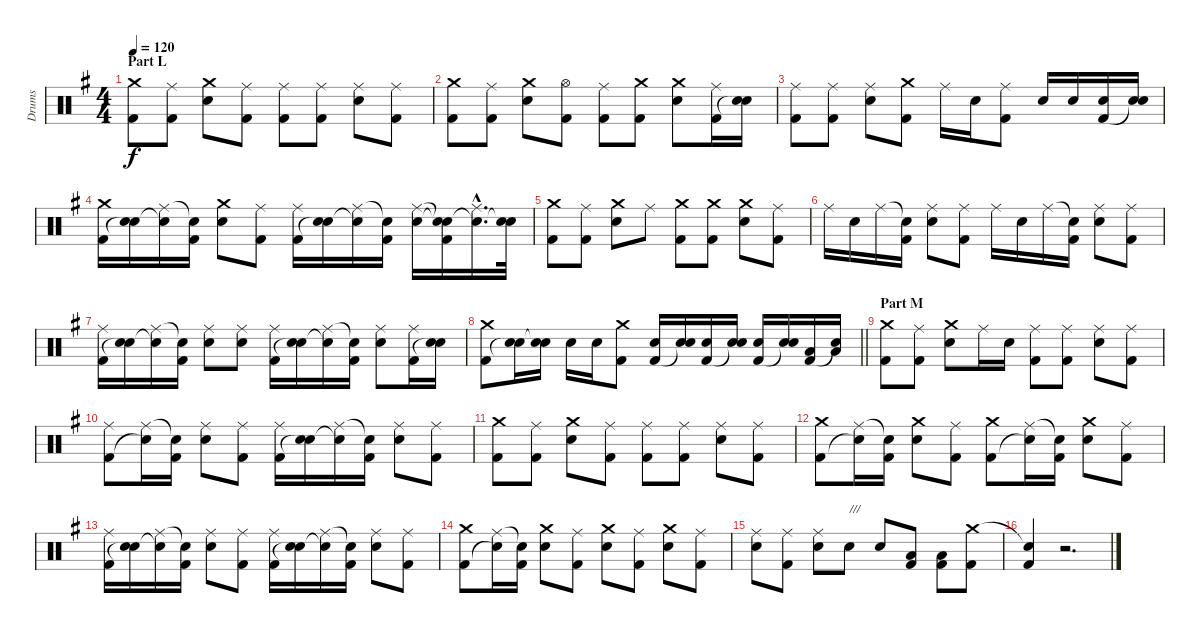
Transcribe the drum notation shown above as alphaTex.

\track ("Drums" "Drums") {instrument percussion}
\staff {score}
\articulation defaults
\ts (4 4)
\section ("" "Part L")
\tempo 120
\clef neutral
\ks g
("Crash medium (hit)" "Kick (hit) 2").8{dy f} ("Ride (middle)" "Kick (hit) 2").8 ("Crash medium (hit)" "Electric Snare (hit)").8 ("Ride (middle)" "Kick (hit) 2").8 ("Ride (middle)" "Kick (hit) 2").8 ("Ride (middle)" "Kick (hit) 2").8 ("Ride (middle)" "Electric Snare (hit)").8 ("Ride (middle)" "Kick (hit) 2").8 |
("Crash medium (hit)" "Kick (hit) 2").8 ("Ride (middle)" "Kick (hit) 2").8 ("Crash medium (hit)" "Electric Snare (hit)").8 ("Hi-Hat (open)" "Kick (hit) 2").8 ("Ride (middle)" "Kick (hit) 2").8 ("Crash medium (hit)" "Kick (hit) 2").8 ("Crash medium (hit)" "Electric Snare (hit)").8 ("Ride (middle)" "Kick (hit) 2").16 ("Electric Snare (hit)" "Snare (hit)"{t}).16 |
("Ride (middle)" "Kick (hit) 2").8 ("Ride (middle)" "Kick (hit) 2").8 ("Ride (middle)" "Electric Snare (hit)").8 ("Crash medium (hit)" "Kick (hit) 2").8 "Ride (middle)".16 "Electric Snare (hit)".16 ("Ride (middle)" "Kick (hit) 2").8 "Electric Snare (hit)".16 "Electric Snare (hit)".16 ("Electric Snare (hit)" "Kick (hit) 2").16 ("Electric Snare (hit)" "Snare (hit)"{t}).16 |
("Crash medium (hit)" "Kick (hit) 2").16 ("Electric Snare (hit)" "Snare (hit)"{t}).16 ("Ride (middle)" "Snare (hit)"{t}).16 ("Snare (hit)"{t} "Kick (hit) 2").16 ("Crash medium (hit)" "Electric Snare (hit)").8 ("Ride (middle)" "Kick (hit) 2").8 ("Ride (middle)" "Kick (hit) 2").16 ("Electric Snare (hit)" "Snare (hit)"{t}).16 ("Ride (middle)" "Snare (hit)"{t}).16 ("Snare (hit)"{t} "Kick (hit) 2").16 ("Ride (middle)" "Electric Snare (hit)").16 ("Snare (hit)"{t} "Snare (hit)"{t} "Kick (hit) 2").16 ("Ride (middle)"{hac} "Snare (hit)"{hac t}).16{d} ("Snare (hit) 2" "Snare (hit)"{t}).32 |
("Crash medium (hit)" "Kick (hit) 2").8 ("Ride (middle)" "Kick (hit) 2").8 ("Crash medium (hit)" "Electric Snare (hit)").8 "Ride (middle)".8 ("Crash medium (hit)" "Kick (hit) 2").8 ("Crash medium (hit)" "Kick (hit) 2").8 ("Crash medium (hit)" "Electric Snare (hit)").8 ("Ride (middle)" "Kick (hit) 2").8 |
"Ride (middle)".16 "Electric Snare (hit)".16 "Ride (middle)".16 ("Snare (hit)"{t} "Kick (hit) 2").16 ("Ride (middle)" "Electric Snare (hit)").8 ("Ride (middle)" "Kick (hit) 2").8 "Ride (middle)".16 "Electric Snare (hit)".16 "Ride (middle)".16 ("Snare (hit)"{t} "Kick (hit) 2").16 ("Ride (middle)" "Electric Snare (hit)").8 ("Ride (middle)" "Kick (hit) 2").8 |
("Ride (middle)" "Kick (hit) 2").16 ("Electric Snare (hit)" "Snare (hit)"{t}).16 ("Ride (middle)" "Snare (hit)"{t}).16 ("Snare (hit)"{t} "Kick (hit) 2").16 ("Ride (middle)" "Electric Snare (hit)").8 ("Ride (middle)" "Electric Snare (hit)").8 ("Ride (middle)" "Kick (hit) 2").16 ("Electric Snare (hit)" "Snare (hit)"{t}).16 ("Ride (middle)" "Snare (hit)"{t}).16 ("Snare (hit)"{t} "Kick (hit) 2").16 ("Ride (middle)" "Electric Snare (hit)").8 ("Ride (middle)" "Kick (hit) 2").16 ("Electric Snare (hit)" "Snare (hit)"{t}).16 |
\barLineRight lightlight
("Crash medium (hit)" "Kick (hit) 2").8 ("Electric Snare (hit)" "Snare (hit)"{t}).16 ("Electric Snare (hit)" "Snare (hit)"{t}).16 "Electric Snare (hit)".16 "Electric Snare (hit)".16 ("Crash medium (hit)" "Kick (hit) 2").8 ("Electric Snare (hit)" "Kick (hit) 2").16 ("Electric Snare (hit)" "Snare (hit)"{t}).16 ("Electric Snare (hit)" "Kick (hit) 2").16 ("Electric Snare (hit)" "Snare (hit)"{t}).16 ("Electric Snare (hit)" "Kick (hit) 2").16 ("Electric Snare (hit)" "Snare (hit)"{t}).16 ("Low Tom (hit)" "Kick (hit) 2").16 ("Low Floor Tom (hit)" "Snare (hit)"{t}).16 |
\section ("" "Part M")
("Crash medium (hit)" "Kick (hit) 2").8 ("Ride (middle)" "Kick (hit) 2").8 ("Crash medium (hit)" "Electric Snare (hit)").8 "Ride (middle)".16 "Snare (hit) 2".16 ("Ride (middle)" "Kick (hit) 2").8 ("Ride (middle)" "Kick (hit) 2").8 ("Ride (middle)" "Electric Snare (hit)").8 ("Ride (middle)" "Kick (hit) 2").8 |
("Ride (middle)" "Kick (hit) 2").8 ("Ride (middle)" "Snare (hit)"{t}).16 ("Snare (hit)"{t} "Kick (hit) 2").16 ("Ride (middle)" "Electric Snare (hit)").8 ("Ride (middle)" "Kick (hit) 2").8 ("Ride (middle)" "Kick (hit) 2").16 ("Electric Snare (hit)" "Snare (hit)"{t}).16 ("Ride (middle)" "Snare (hit)"{t}).16 ("Snare (hit)"{t} "Kick (hit) 2").16 ("Ride (middle)" "Electric Snare (hit)").8 ("Ride (middle)" "Kick (hit) 2").8 |
("Crash medium (hit)" "Kick (hit) 2").8 ("Ride (middle)" "Kick (hit) 2").8 ("Crash medium (hit)" "Electric Snare (hit)").8 ("Ride (middle)" "Kick (hit) 2").8 ("Ride (middle)" "Kick (hit) 2").8 ("Ride (middle)" "Kick (hit) 2").8 ("Ride (middle)" "Electric Snare (hit)").8 ("Ride (middle)" "Kick (hit) 2").8 |
("Crash medium (hit)" "Kick (hit) 2").8 ("Ride (middle)" "Snare (hit)"{t}).16 ("Snare (hit)"{t} "Kick (hit) 2").16 ("Crash medium (hit)" "Electric Snare (hit)").8 ("Ride (middle)" "Kick (hit) 2").8 ("Crash medium (hit)" "Kick (hit) 2").8 ("Ride (middle)" "Snare (hit)"{t}).16 ("Snare (hit)"{t} "Kick (hit) 2").16 ("Crash medium (hit)" "Electric Snare (hit)").8 ("Ride (middle)" "Kick (hit) 2").8 |
("Ride (middle)" "Kick (hit) 2").16 ("Electric Snare (hit)" "Snare (hit)"{t}).16 ("Ride (middle)" "Snare (hit)"{t}).16 ("Snare (hit)"{t} "Kick (hit) 2").16 ("Ride (middle)" "Electric Snare (hit)").8 ("Ride (middle)" "Kick (hit) 2").8 ("Ride (middle)" "Kick (hit) 2").16 ("Electric Snare (hit)" "Snare (hit)"{t}).16 ("Ride (middle)" "Snare (hit)"{t}).16 ("Snare (hit)"{t} "Kick (hit) 2").16 ("Ride (middle)" "Electric Snare (hit)").8 ("Ride (middle)" "Kick (hit) 2").8 |
("Crash medium (hit)" "Kick (hit) 2").8 ("Ride (middle)" "Snare (hit)"{t}).16 ("Snare (hit)"{t} "Kick (hit) 2").16 ("Crash medium (hit)" "Electric Snare (hit)").8 ("Ride (middle)" "Kick (hit) 2").8 ("Crash medium (hit)" "Electric Snare (hit)").8 ("Ride (middle)" "Kick (hit) 2").8 ("Crash medium (hit)" "Electric Snare (hit)").8 ("Ride (middle)" "Kick (hit) 2").8 |
("Ride (middle)" "Electric Snare (hit)").8 ("Ride (middle)" "Kick (hit) 2").8 ("Ride (middle)" "Electric Snare (hit)").8 "Electric Snare (hit)".8{txt "///"} "Electric Snare (hit)".8 ("Low Floor Tom (hit)" "Kick (hit) 2").8 ("Low Floor Tom (hit)" "Kick (hit) 2").8 ("Crash medium (hit)" "Kick (hit) 2").8 |
("Snare (hit)"{t} "Kick (hit) 2").4 r.2{d}
